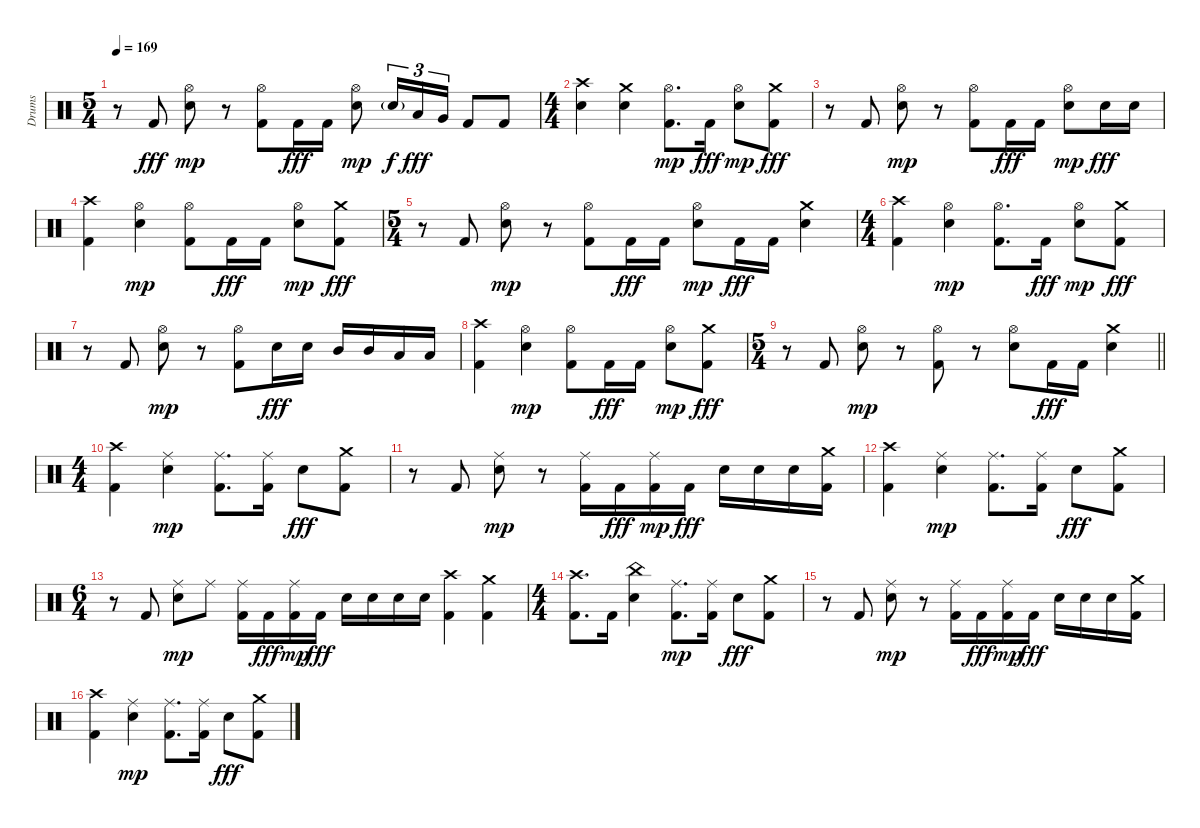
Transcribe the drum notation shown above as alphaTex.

\track ("Drums" "Drums") {instrument percussion}
\staff {score}
\articulation defaults
\ts (5 4)
\tempo 169
\clef neutral
\ks c
r.8{dy fff} "Kick (hit) 2".8 ("Electric Snare (hit)" "Hi-Hat (open)").8{dy mp} r.8 ("Kick (hit) 2" "Hi-Hat (open)").8 "Kick (hit) 2".16{dy fff} "Kick (hit) 2".16 ("Electric Snare (hit)" "Hi-Hat (open)").8{dy mp} "Electric Snare (hit)"{g}.16{tu (3 2) dy f} "Low Tom (hit)".16{tu (3 2) dy fff} "Very Low Tom (hit)".16{tu (3 2)} "Kick (hit) 2".8 "Kick (hit) 2".8 |
\ts (4 4)
("Electric Snare (hit)" "Crash high (hit)").4 ("Electric Snare (hit)" "Crash medium (hit)").4 ("Kick (hit) 2" "Hi-Hat (open)").8{d dy mp} "Kick (hit) 2".16{dy fff} ("Electric Snare (hit)" "Hi-Hat (open)").8{dy mp} ("Kick (hit) 2" "Crash medium (hit)").8{dy fff} |
r.8 "Kick (hit) 2".8 ("Electric Snare (hit)" "Hi-Hat (open)").8{dy mp} r.8 ("Kick (hit) 2" "Hi-Hat (open)").8 "Kick (hit) 2".16{dy fff} "Kick (hit) 2".16 ("Electric Snare (hit)" "Hi-Hat (open)").8{dy mp} "Electric Snare (hit)".16{dy fff} "Electric Snare (hit)".16 |
("Kick (hit) 2" "Crash high (hit)").4 ("Electric Snare (hit)" "Hi-Hat (open)").4{dy mp} ("Kick (hit) 2" "Hi-Hat (open)").8 "Kick (hit) 2".16{dy fff} "Kick (hit) 2".16 ("Electric Snare (hit)" "Hi-Hat (open)").8{dy mp} ("Kick (hit) 2" "Crash medium (hit)").8{dy fff} |
\ts (5 4)
r.8 "Kick (hit) 2".8 ("Electric Snare (hit)" "Hi-Hat (open)").8{dy mp} r.8 ("Kick (hit) 2" "Hi-Hat (open)").8 "Kick (hit) 2".16{dy fff} "Kick (hit) 2".16 ("Electric Snare (hit)" "Hi-Hat (open)").8{dy mp} "Kick (hit) 2".16{dy fff} "Kick (hit) 2".16 ("Electric Snare (hit)" "Crash medium (hit)").4 |
\ts (4 4)
("Kick (hit) 2" "Crash high (hit)").4 ("Electric Snare (hit)" "Hi-Hat (open)").4{dy mp} ("Kick (hit) 2" "Hi-Hat (open)").8{d} "Kick (hit) 2".16{dy fff} ("Electric Snare (hit)" "Hi-Hat (open)").8{dy mp} ("Kick (hit) 2" "Crash medium (hit)").8{dy fff} |
r.8 "Kick (hit) 2".8 ("Electric Snare (hit)" "Hi-Hat (open)").8{dy mp} r.8 ("Kick (hit) 2" "Hi-Hat (open)").8 "Electric Snare (hit)".16{dy fff} "Electric Snare (hit)".16 "Mid Tom (hit)".16 "Mid Tom (hit)".16 "Low Tom (hit)".16 "Low Tom (hit)".16 |
("Kick (hit) 2" "Crash high (hit)").4 ("Electric Snare (hit)" "Hi-Hat (open)").4{dy mp} ("Kick (hit) 2" "Hi-Hat (open)").8 "Kick (hit) 2".16{dy fff} "Kick (hit) 2".16 ("Electric Snare (hit)" "Hi-Hat (open)").8{dy mp} ("Kick (hit) 2" "Crash medium (hit)").8{dy fff} |
\ts (5 4)
\barLineRight lightlight
r.8 "Kick (hit) 2".8 ("Electric Snare (hit)" "Hi-Hat (open)").8{dy mp} r.8 ("Kick (hit) 2" "Hi-Hat (open)").8 r.8 ("Electric Snare (hit)" "Hi-Hat (open)").8 "Kick (hit) 2".16{dy fff} "Kick (hit) 2".16 ("Electric Snare (hit)" "Crash medium (hit)").4 |
\ts (4 4)
("Kick (hit) 2" "Crash high (hit)").4 ("Electric Snare (hit)" "Ride (middle)").4{dy mp} ("Kick (hit) 2" "Ride (middle)").8{d} ("Kick (hit) 2" "Ride (middle)").16 "Electric Snare (hit)".8{dy fff} ("Kick (hit) 2" "Crash medium (hit)").8 |
r.8 "Kick (hit) 2".8 ("Electric Snare (hit)" "Ride (middle)").8{dy mp} r.8 ("Kick (hit) 2" "Ride (middle)").16 "Kick (hit) 2".16{dy fff} ("Kick (hit) 2" "Ride (middle)").16{dy mp} "Kick (hit) 2".16{dy fff} "Electric Snare (hit)".16 "Electric Snare (hit)".16 "Electric Snare (hit)".16 ("Kick (hit) 2" "Crash medium (hit)").16 |
("Kick (hit) 2" "Crash high (hit)").4 ("Electric Snare (hit)" "Ride (middle)").4{dy mp} ("Kick (hit) 2" "Ride (middle)").8{d} ("Kick (hit) 2" "Ride (middle)").16 "Electric Snare (hit)".8{dy fff} ("Kick (hit) 2" "Crash medium (hit)").8 |
\ts (6 4)
r.8 "Kick (hit) 2".8 ("Electric Snare (hit)" "Ride (middle)").8{dy mp} "Ride (middle)".8 ("Kick (hit) 2" "Ride (middle)").16 "Kick (hit) 2".16{dy fff} ("Kick (hit) 2" "Ride (middle)").16{dy mp} "Kick (hit) 2".16{dy fff} "Electric Snare (hit)".16 "Electric Snare (hit)".16 "Electric Snare (hit)".16 "Electric Snare (hit)".16 ("Kick (hit) 2" "Crash high (hit)").4 ("Kick (hit) 2" "Crash medium (hit)").4 |
\ts (4 4)
("Kick (hit) 2" "Crash high (hit)").8{d} "Kick (hit) 2".16 ("Electric Snare (hit)" "China (hit)").4 ("Kick (hit) 2" "Ride (middle)").8{d dy mp} ("Kick (hit) 2" "Ride (middle)").16 "Electric Snare (hit)".8{dy fff} ("Kick (hit) 2" "Crash medium (hit)").8 |
r.8 "Kick (hit) 2".8 ("Electric Snare (hit)" "Ride (middle)").8{dy mp} r.8 ("Kick (hit) 2" "Ride (middle)").16 "Kick (hit) 2".16{dy fff} ("Kick (hit) 2" "Ride (middle)").16{dy mp} "Kick (hit) 2".16{dy fff} "Electric Snare (hit)".16 "Electric Snare (hit)".16 "Electric Snare (hit)".16 ("Kick (hit) 2" "Crash medium (hit)").16 |
("Kick (hit) 2" "Crash high (hit)").4 ("Electric Snare (hit)" "Ride (middle)").4{dy mp} ("Kick (hit) 2" "Ride (middle)").8{d} ("Kick (hit) 2" "Ride (middle)").16 "Electric Snare (hit)".8{dy fff} ("Kick (hit) 2" "Crash medium (hit)").8
